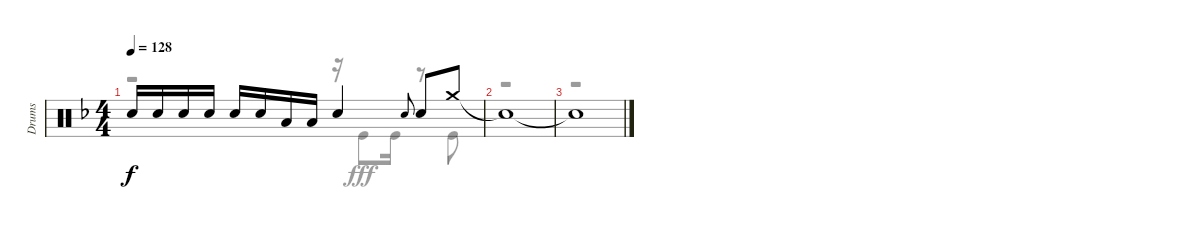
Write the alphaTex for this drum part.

\track ("Drums" "Drums") {instrument percussion}
\staff {score}
\articulation defaults
\voice
\ts (4 4)
\tempo 128
\clef neutral
\ks f "Snare (hit) 2".16{dy f} "Snare (hit) 2".16 "Snare (hit) 2".16 "Snare (hit) 2".16 "Snare (hit) 2".16 "Snare (hit) 2".16 "Low Tom (hit)".16 "Low Tom (hit)".16 "Snare (hit) 2".4 "Snare (hit) 2".8{gr onbeat} "Snare (hit) 2".8 "Crash medium (hit)".8
|
"Snare (hit)"{t}.1 |
"Snare (hit)"{t}.1
\voice
\clef neutral
\ottava regular
\simile none
\ks f
r.2{dy fff} r.16 "Kick (hit)".8 "Kick (hit)".16 r.8 "Kick (hit)".8 |
r.1 |
r.1
